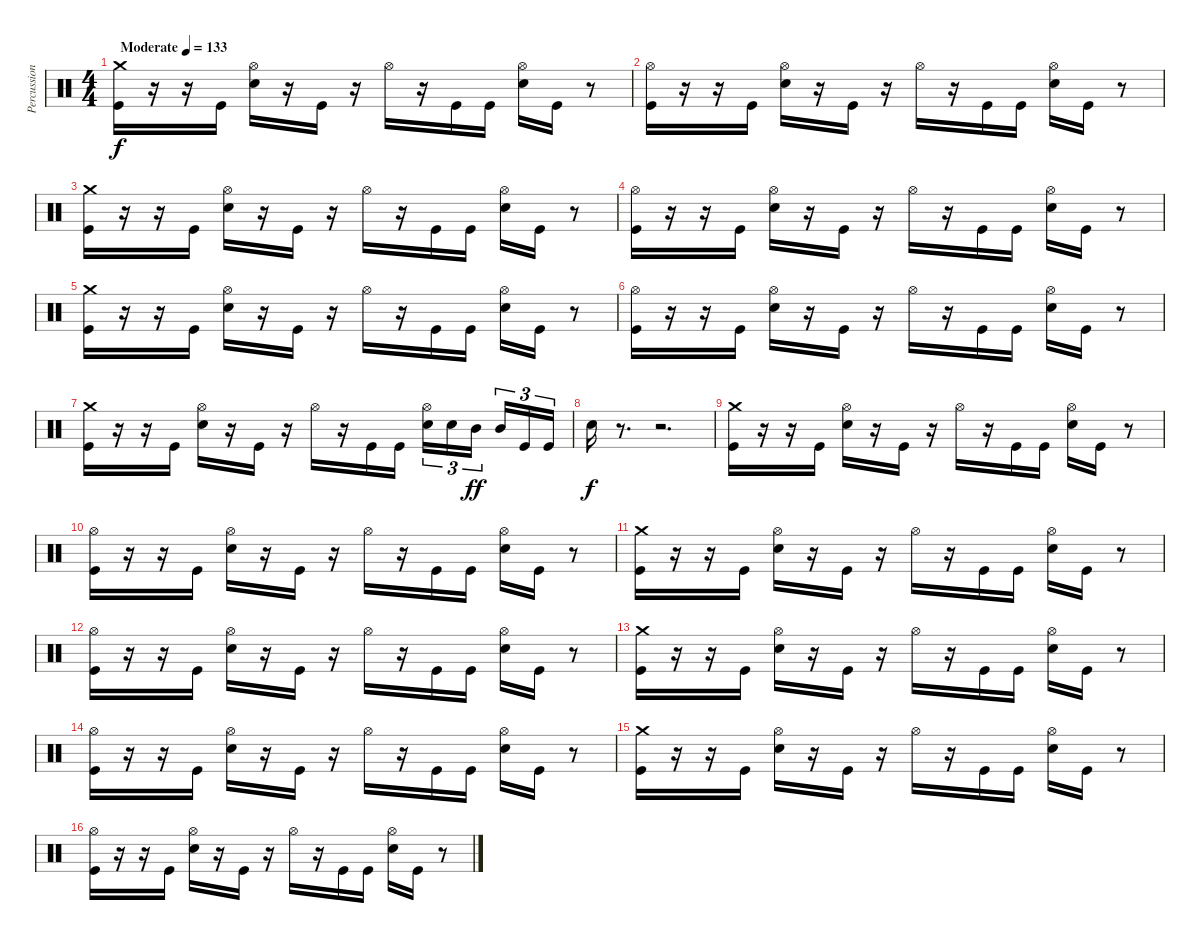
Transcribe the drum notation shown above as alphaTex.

\track ("Percussioni" "Percussion") {instrument percussion}
\staff {score}
\articulation defaults
\ts (4 4)
\tempo (133 "Moderate")
\clef neutral
\ks c
("Crash medium (hit)" "Kick (hit)").16{dy f} r.16 r.16 "Kick (hit)".16 ("Hi-Hat (open)" "Electric Snare (hit)").16 r.16 "Kick (hit)".16 r.16 "Hi-Hat (open)".16 r.16 "Kick (hit)".16 "Kick (hit)".16 ("Hi-Hat (open)" "Electric Snare (hit)").16 "Kick (hit)".16 r.8 |
("Hi-Hat (open)" "Kick (hit)").16 r.16 r.16 "Kick (hit)".16 ("Hi-Hat (open)" "Electric Snare (hit)").16 r.16 "Kick (hit)".16 r.16 "Hi-Hat (open)".16 r.16 "Kick (hit)".16 "Kick (hit)".16 ("Hi-Hat (open)" "Electric Snare (hit)").16 "Kick (hit)".16 r.8 |
("Crash medium (hit)" "Kick (hit)").16 r.16 r.16 "Kick (hit)".16 ("Hi-Hat (open)" "Electric Snare (hit)").16 r.16 "Kick (hit)".16 r.16 "Hi-Hat (open)".16 r.16 "Kick (hit)".16 "Kick (hit)".16 ("Hi-Hat (open)" "Electric Snare (hit)").16 "Kick (hit)".16 r.8 |
("Hi-Hat (open)" "Kick (hit)").16 r.16 r.16 "Kick (hit)".16 ("Hi-Hat (open)" "Electric Snare (hit)").16 r.16 "Kick (hit)".16 r.16 "Hi-Hat (open)".16 r.16 "Kick (hit)".16 "Kick (hit)".16 ("Hi-Hat (open)" "Electric Snare (hit)").16 "Kick (hit)".16 r.8 |
("Crash medium (hit)" "Kick (hit)").16 r.16 r.16 "Kick (hit)".16 ("Hi-Hat (open)" "Electric Snare (hit)").16 r.16 "Kick (hit)".16 r.16 "Hi-Hat (open)".16 r.16 "Kick (hit)".16 "Kick (hit)".16 ("Hi-Hat (open)" "Electric Snare (hit)").16 "Kick (hit)".16 r.8 |
("Hi-Hat (open)" "Kick (hit)").16 r.16 r.16 "Kick (hit)".16 ("Hi-Hat (open)" "Electric Snare (hit)").16 r.16 "Kick (hit)".16 r.16 "Hi-Hat (open)".16 r.16 "Kick (hit)".16 "Kick (hit)".16 ("Hi-Hat (open)" "Electric Snare (hit)").16 "Kick (hit)".16 r.8 |
("Crash medium (hit)" "Kick (hit)").16 r.16 r.16 "Kick (hit)".16 ("Hi-Hat (open)" "Electric Snare (hit)").16 r.16 "Kick (hit)".16 r.16 "Hi-Hat (open)".16 r.16 "Kick (hit)".16 "Kick (hit)".16 ("Hi-Hat (open)" "Electric Snare (hit)").16{tu (3 2)} "Electric Snare (hit)".16{tu (3 2)} "Mid Tom (hit)".16{tu (3 2) dy ff beam splitsecondary} "Mid Tom (hit)".16{tu (3 2)} "Kick (hit)".16{tu (3 2)} "Kick (hit)".16{tu (3 2)} |
"Electric Snare (hit)".16{dy f} r.8{d} r.2{d} |
("Crash medium (hit)" "Kick (hit)").16 r.16 r.16 "Kick (hit)".16 ("Hi-Hat (open)" "Electric Snare (hit)").16 r.16 "Kick (hit)".16 r.16 "Hi-Hat (open)".16 r.16 "Kick (hit)".16 "Kick (hit)".16 ("Hi-Hat (open)" "Electric Snare (hit)").16 "Kick (hit)".16 r.8 |
("Hi-Hat (open)" "Kick (hit)").16 r.16 r.16 "Kick (hit)".16 ("Hi-Hat (open)" "Electric Snare (hit)").16 r.16 "Kick (hit)".16 r.16 "Hi-Hat (open)".16 r.16 "Kick (hit)".16 "Kick (hit)".16 ("Hi-Hat (open)" "Electric Snare (hit)").16 "Kick (hit)".16 r.8 |
("Crash medium (hit)" "Kick (hit)").16 r.16 r.16 "Kick (hit)".16 ("Hi-Hat (open)" "Electric Snare (hit)").16 r.16 "Kick (hit)".16 r.16 "Hi-Hat (open)".16 r.16 "Kick (hit)".16 "Kick (hit)".16 ("Hi-Hat (open)" "Electric Snare (hit)").16 "Kick (hit)".16 r.8 |
("Hi-Hat (open)" "Kick (hit)").16 r.16 r.16 "Kick (hit)".16 ("Hi-Hat (open)" "Electric Snare (hit)").16 r.16 "Kick (hit)".16 r.16 "Hi-Hat (open)".16 r.16 "Kick (hit)".16 "Kick (hit)".16 ("Hi-Hat (open)" "Electric Snare (hit)").16 "Kick (hit)".16 r.8 |
("Crash medium (hit)" "Kick (hit)").16 r.16 r.16 "Kick (hit)".16 ("Hi-Hat (open)" "Electric Snare (hit)").16 r.16 "Kick (hit)".16 r.16 "Hi-Hat (open)".16 r.16 "Kick (hit)".16 "Kick (hit)".16 ("Hi-Hat (open)" "Electric Snare (hit)").16 "Kick (hit)".16 r.8 |
("Hi-Hat (open)" "Kick (hit)").16 r.16 r.16 "Kick (hit)".16 ("Hi-Hat (open)" "Electric Snare (hit)").16 r.16 "Kick (hit)".16 r.16 "Hi-Hat (open)".16 r.16 "Kick (hit)".16 "Kick (hit)".16 ("Hi-Hat (open)" "Electric Snare (hit)").16 "Kick (hit)".16 r.8 |
("Crash medium (hit)" "Kick (hit)").16 r.16 r.16 "Kick (hit)".16 ("Hi-Hat (open)" "Electric Snare (hit)").16 r.16 "Kick (hit)".16 r.16 "Hi-Hat (open)".16 r.16 "Kick (hit)".16 "Kick (hit)".16 ("Hi-Hat (open)" "Electric Snare (hit)").16 "Kick (hit)".16 r.8 |
("Hi-Hat (open)" "Kick (hit)").16 r.16 r.16 "Kick (hit)".16 ("Hi-Hat (open)" "Electric Snare (hit)").16 r.16 "Kick (hit)".16 r.16 "Hi-Hat (open)".16 r.16 "Kick (hit)".16 "Kick (hit)".16 ("Hi-Hat (open)" "Electric Snare (hit)").16 "Kick (hit)".16 r.8
